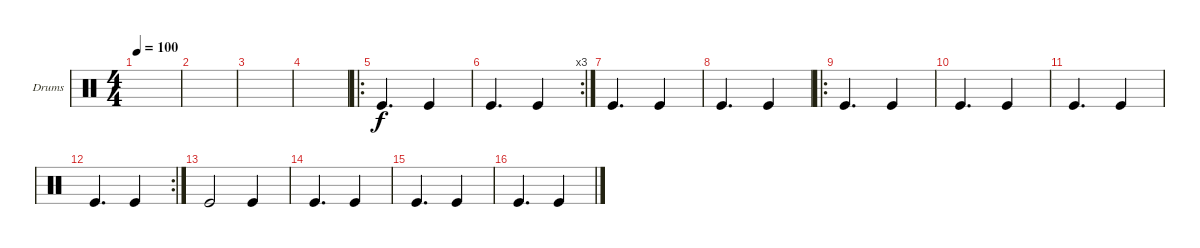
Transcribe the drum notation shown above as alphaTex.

\defaultSystemsLayout 4
\bracketExtendMode groupsimilarinstruments
\firstSystemTrackNameOrientation horizontal
\otherSystemsTrackNameOrientation horizontal
\track ("Drumkit" "Drums") {instrument percussion}
\staff {score}
\articulation defaults
\ts (4 4)
\tempo 100
\clef neutral
\scale
0.333333
\ks c
|
\scale
0.333333 |
\scale
0.333333 |
\scale
0.333333 |
\ro
\scale
0.333333 "Kick (hit)".4{d} "Kick (hit)".4 |
\rc 3
\scale
0.333333 "Kick (hit)".4{d} "Kick (hit)".4 |
\scale
0.333333 "Kick (hit)".4{d} "Kick (hit)".4 |
\scale
0.333333 "Kick (hit)".4{d} "Kick (hit)".4 |
\ro
\scale
0.333333 "Kick (hit)".4{d} "Kick (hit)".4 |
\scale
0.333333 "Kick (hit)".4{d} "Kick (hit)".4 |
\scale
0.333333 "Kick (hit)".4{d} "Kick (hit)".4 |
\rc 2
\scale
0.333333 "Kick (hit)".4{d} "Kick (hit)".4 |
\scale
0.333333 "Kick (hit)".2 "Kick (hit)".4 |
\scale
0.333333 "Kick (hit)".4{d} "Kick (hit)".4 |
\scale
0.333333 "Kick (hit)".4{d} "Kick (hit)".4 |
\scale
0.333333 "Kick (hit)".4{d} "Kick (hit)".4
